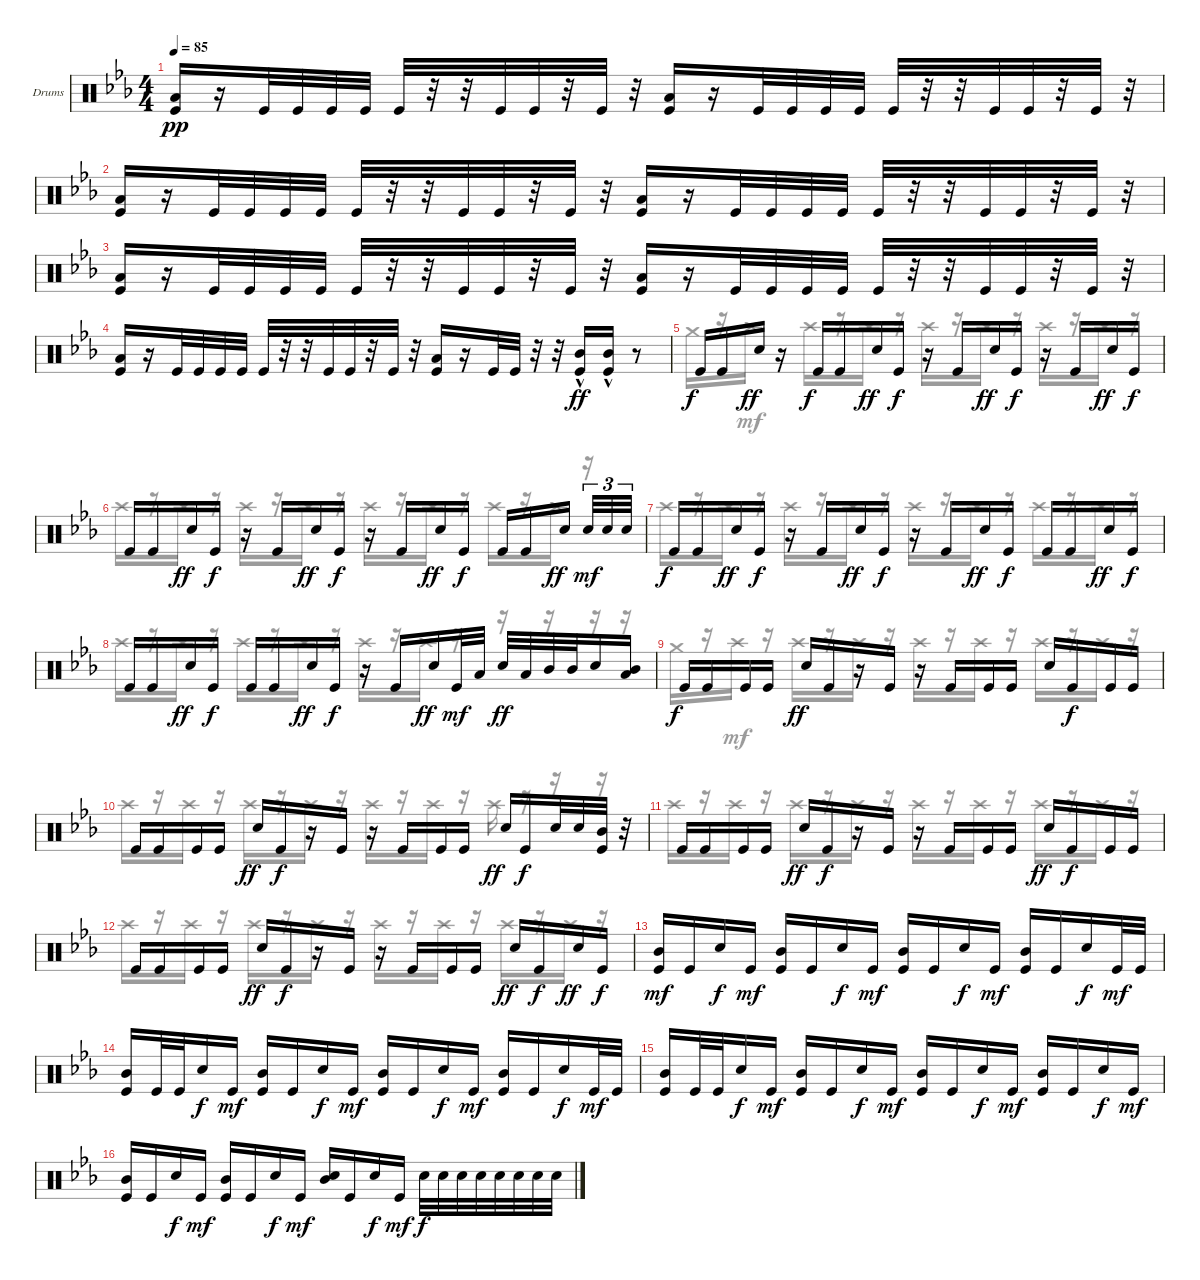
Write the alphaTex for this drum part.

\defaultSystemsLayout 4
\bracketExtendMode groupsimilarinstruments
\firstSystemTrackNameOrientation horizontal
\otherSystemsTrackNameOrientation horizontal
\track ("Drums" "Drums") {instrument percussion}
\staff {score}
\articulation defaults
\voice
\ts (4 4)
\scale
0.508202
\tempo 85
\accidentals auto
\clef neutral
\ottava regular
\simile none
\ks eb
("Kick (hit)" "Low Tom (hit)").16{dy pp} r.16 "Kick (hit)".32 "Kick (hit)".32 "Kick (hit)".32 "Kick (hit)".32 "Kick (hit)".32 r.32 r.32 "Kick (hit)".32 "Kick (hit)".32 r.32 "Kick (hit)".32 r.32 ("Kick (hit)" "Low Tom (hit)").16 r.16 "Kick (hit)".32 "Kick (hit)".32 "Kick (hit)".32 "Kick (hit)".32 "Kick (hit)".32 r.32 r.32 "Kick (hit)".32 "Kick (hit)".32 r.32 "Kick (hit)".32 r.32 |
\scale
0.49162 ("Kick (hit)" "Low Tom (hit)").16 r.16 "Kick (hit)".32 "Kick (hit)".32 "Kick (hit)".32 "Kick (hit)".32 "Kick (hit)".32 r.32 r.32 "Kick (hit)".32 "Kick (hit)".32 r.32 "Kick (hit)".32 r.32 ("Kick (hit)" "Low Tom (hit)").16 r.16 "Kick (hit)".32 "Kick (hit)".32 "Kick (hit)".32 "Kick (hit)".32 "Kick (hit)".32 r.32 r.32 "Kick (hit)".32 "Kick (hit)".32 r.32 "Kick (hit)".32 r.32 |
\scale
0.513554 ("Kick (hit)" "Low Tom (hit)").16 r.16 "Kick (hit)".32 "Kick (hit)".32 "Kick (hit)".32 "Kick (hit)".32 "Kick (hit)".32 r.32 r.32 "Kick (hit)".32 "Kick (hit)".32 r.32 "Kick (hit)".32 r.32 ("Kick (hit)" "Low Tom (hit)").16 r.16 "Kick (hit)".32 "Kick (hit)".32 "Kick (hit)".32 "Kick (hit)".32 "Kick (hit)".32 r.32 r.32 "Kick (hit)".32 "Kick (hit)".32 r.32 "Kick (hit)".32 r.32 |
\scale
0.487079 ("Kick (hit)" "Low Tom (hit)").16 r.16 "Kick (hit)".32 "Kick (hit)".32 "Kick (hit)".32 "Kick (hit)".32 "Kick (hit)".32 r.32 r.32 "Kick (hit)".32 "Kick (hit)".32 r.32 "Kick (hit)".32 r.32 ("Kick (hit)" "Low Tom (hit)").16 r.16 "Kick (hit)".32 "Kick (hit)".32 r.32 r.32 ("Kick (hit)"{hac} "Mid Tom (hit)"{hac}).16{dy ff} ("Kick (hit)"{hac} "Mid Tom (hit)"{hac}).16 r.8 |
\scale
0.476471
\scale
0.474178 "Kick (hit)".16{dy f} "Kick (hit)".16 "Snare (hit) 2".16{dy ff} r.16 "Kick (hit)".16{dy f} "Kick (hit)".16 "Snare (hit) 2".16{dy ff} "Kick (hit)".16{dy f} r.16 "Kick (hit)".16 "Snare (hit) 2".16{dy ff} "Kick (hit)".16{dy f} r.16 "Kick (hit)".16 "Snare (hit) 2".16{dy ff} "Kick (hit)".16{dy f} |
\scale
0.523779
\scale
0.262911 "Kick (hit)".16 "Kick (hit)".16 "Snare (hit) 2".16{dy ff} "Kick (hit)".16{dy f} r.16 "Kick (hit)".16 "Snare (hit) 2".16{dy ff} "Kick (hit)".16{dy f} r.16 "Kick (hit)".16 "Snare (hit) 2".16{dy ff} "Kick (hit)".16{dy f} "Kick (hit)".16 "Kick (hit)".16 "Snare (hit) 2".16{dy ff} "Snare (hit) 2".32{tu (3 2) dy mf} "Snare (hit) 2".32{tu (3 2)} "Snare (hit) 2".32{tu (3 2)} |
\scale
0.262911 "Kick (hit)".16{dy f} "Kick (hit)".16 "Snare (hit) 2".16{dy ff} "Kick (hit)".16{dy f} r.16 "Kick (hit)".16 "Snare (hit) 2".16{dy ff} "Kick (hit)".16{dy f} r.16 "Kick (hit)".16 "Snare (hit) 2".16{dy ff} "Kick (hit)".16{dy f} "Kick (hit)".16 "Kick (hit)".16 "Snare (hit) 2".16{dy ff} "Kick (hit)".16{dy f} |
\scale
0.333333 "Kick (hit)".16 "Kick (hit)".16 "Snare (hit) 2".16{dy ff} "Kick (hit)".16{dy f} "Kick (hit)".16 "Kick (hit)".16 "Snare (hit) 2".16{dy ff} "Kick (hit)".16{dy f} r.16 "Kick (hit)".16 "Snare (hit) 2".16{dy ff} "Kick (hit)".32{dy mf} "Low Tom (hit)".32 "Snare (hit) 2".32{dy ff} "Low Tom (hit)".32 "Mid Tom (hit)".32 "Mid Tom (hit)".32 "Snare (hit) 2".16 ("Mid Tom (hit)" "Low Tom (hit)").16 |
\scale
0.333333 "Kick (hit)".16{dy f} "Kick (hit)".16 "Kick (hit)".16 "Kick (hit)".16 "Snare (hit) 2".16{dy ff} "Kick (hit)".16 r.16 "Kick (hit)".16 r.16 "Kick (hit)".16 "Kick (hit)".16 "Kick (hit)".16 "Snare (hit) 2".16 "Kick (hit)".16{dy f} "Kick (hit)".16 "Kick (hit)".16 |
\scale
0.333333 "Kick (hit)".16 "Kick (hit)".16 "Kick (hit)".16 "Kick (hit)".16 "Snare (hit) 2".16{dy ff} "Kick (hit)".16{dy f} r.16 "Kick (hit)".16 r.16 "Kick (hit)".16 "Kick (hit)".16 "Kick (hit)".16 "Snare (hit) 2".16{dy ff} "Kick (hit)".16{dy f} "Snare (hit) 2".32 "Snare (hit) 2".32 ("Mid Tom (hit)" "Kick (hit)").32 r.32 |
"Kick (hit)".16 "Kick (hit)".16 "Kick (hit)".16 "Kick (hit)".16 "Snare (hit) 2".16{dy ff} "Kick (hit)".16{dy f} r.16 "Kick (hit)".16 r.16 "Kick (hit)".16 "Kick (hit)".16 "Kick (hit)".16 "Snare (hit) 2".16{dy ff} "Kick (hit)".16{dy f} "Kick (hit)".16 "Kick (hit)".16 |
"Kick (hit)".16 "Kick (hit)".16 "Kick (hit)".16 "Kick (hit)".16 "Snare (hit) 2".16{dy ff} "Kick (hit)".16{dy f} r.16 "Kick (hit)".16 r.16 "Kick (hit)".16 "Kick (hit)".16 "Kick (hit)".16 "Snare (hit) 2".16{dy ff} "Kick (hit)".16{dy f} "Snare (hit) 2".16{dy ff} "Kick (hit)".16{dy f} |
("Mid Tom (hit)" "Kick (hit)").16{dy mf} "Kick (hit)".16 "Snare (hit) 2".16{dy f} "Kick (hit)".16{dy mf} ("Kick (hit)" "Mid Tom (hit)").16 "Kick (hit)".16 "Snare (hit) 2".16{dy f} "Kick (hit)".16{dy mf} ("Kick (hit)" "Mid Tom (hit)").16 "Kick (hit)".16 "Snare (hit) 2".16{dy f} "Kick (hit)".16{dy mf} ("Kick (hit)" "Mid Tom (hit)").16 "Kick (hit)".16 "Snare (hit) 2".16{dy f} "Kick (hit)".32{dy mf} "Kick (hit)".32 |
("Kick (hit)" "Mid Tom (hit)").16 "Kick (hit)".32 "Kick (hit)".32 "Snare (hit) 2".16{dy f} "Kick (hit)".16{dy mf} ("Kick (hit)" "Mid Tom (hit)").16 "Kick (hit)".16 "Snare (hit) 2".16{dy f} "Kick (hit)".16{dy mf} ("Kick (hit)" "Mid Tom (hit)").16 "Kick (hit)".16 "Snare (hit) 2".16{dy f} "Kick (hit)".16{dy mf} ("Kick (hit)" "Mid Tom (hit)").16 "Kick (hit)".16 "Snare (hit) 2".16{dy f} "Kick (hit)".32{dy mf} "Kick (hit)".32 |
("Kick (hit)" "Mid Tom (hit)").16 "Kick (hit)".32 "Kick (hit)".32 "Snare (hit) 2".16{dy f} "Kick (hit)".16{dy mf} ("Kick (hit)" "Mid Tom (hit)").16 "Kick (hit)".16 "Snare (hit) 2".16{dy f} "Kick (hit)".16{dy mf} ("Kick (hit)" "Mid Tom (hit)").16 "Kick (hit)".16 "Snare (hit) 2".16{dy f} "Kick (hit)".16{dy mf} ("Kick (hit)" "Mid Tom (hit)").16 "Kick (hit)".16 "Snare (hit) 2".16{dy f} "Kick (hit)".16{dy mf} |
("Kick (hit)" "Mid Tom (hit)").16 "Kick (hit)".16 "Snare (hit) 2".16{dy f} "Kick (hit)".16{dy mf} ("Kick (hit)" "Mid Tom (hit)").16 "Kick (hit)".16 "Snare (hit) 2".16{dy f} "Kick (hit)".16{dy mf} ("Snare (hit) 2" "Mid Tom (hit)").16 "Kick (hit)".16 "Snare (hit) 2".16{dy f} "Kick (hit)".16{dy mf} "Snare (hit) 2".32{dy f} "Snare (hit) 2".32 "Snare (hit) 2".32 "Snare (hit) 2".32 "Snare (hit) 2".32 "Snare (hit) 2".32 "Snare (hit) 2".32 "Snare (hit) 2".32
\voice
\clef neutral
\ottava regular
\simile none
\ks eb
|
|
|
|
\scale
0.474178 "Crash medium (hit)".16 r.16 "Crash high (hit)".16{dy mf} r.16 "Crash high (hit)".16 r.16 "Crash high (hit)".16 r.16 "Crash high (hit)".16 r.16 "Crash high (hit)".16 r.16 "Crash high (hit)".16 r.16 "Crash high (hit)".16 r.16 |
\scale
0.262911 "Crash high (hit)".16 r.16 "Crash high (hit)".16 r.16 "Crash high (hit)".16 r.16 "Crash high (hit)".16 r.16 "Crash high (hit)".16 r.16 "Crash high (hit)".16 r.16 "Crash high (hit)".16 r.16 "Crash high (hit)".16 r.16 |
\scale
0.262911 "Crash high (hit)".16 r.16 "Crash high (hit)".16 r.16 "Crash high (hit)".16 r.16 "Crash high (hit)".16 r.16 "Crash high (hit)".16 r.16 "Crash high (hit)".16 r.16 "Crash high (hit)".16 r.16 "Crash high (hit)".16 r.16 |
\scale
0.333333 "Crash high (hit)".16 r.16 "Crash high (hit)".16 r.16 "Crash high (hit)".16 r.16 "Crash high (hit)".16 r.16 "Crash high (hit)".16 r.16 "Crash high (hit)".16 r.16 r.16 r.16 r.16 r.16 |
\scale
0.333333 "Crash medium (hit)".16{dy f} r.16 "Crash high (hit)".16{dy mf} r.16 "Crash high (hit)".16 r.16 "Crash high (hit)".16 r.16 "Crash high (hit)".16 r.16 "Crash high (hit)".16 r.16 "Crash high (hit)".16 r.16 "Crash high (hit)".16 r.16 |
\scale
0.333333 "Crash high (hit)".16 r.16 "Crash high (hit)".16 r.16 "Crash high (hit)".16 r.16 "Crash high (hit)".16 r.16 "Crash high (hit)".16 r.16 "Crash high (hit)".16 r.16 "Crash high (hit)".16 r.16 r.16 r.16 |
"Crash high (hit)".16 r.16 "Crash high (hit)".16 r.16 "Crash high (hit)".16 r.16 "Crash high (hit)".16 r.16 "Crash high (hit)".16 r.16 "Crash high (hit)".16 r.16 "Crash high (hit)".16 r.16 "Crash high (hit)".16 r.16 |
"Crash high (hit)".16 r.16 "Crash high (hit)".16 r.16 "Crash high (hit)".16 r.16 "Crash high (hit)".16 r.16 "Crash high (hit)".16 r.16 "Crash high (hit)".16 r.16 "Crash high (hit)".16 r.16 "Crash high (hit)".16 r.16 |
|
|
|
